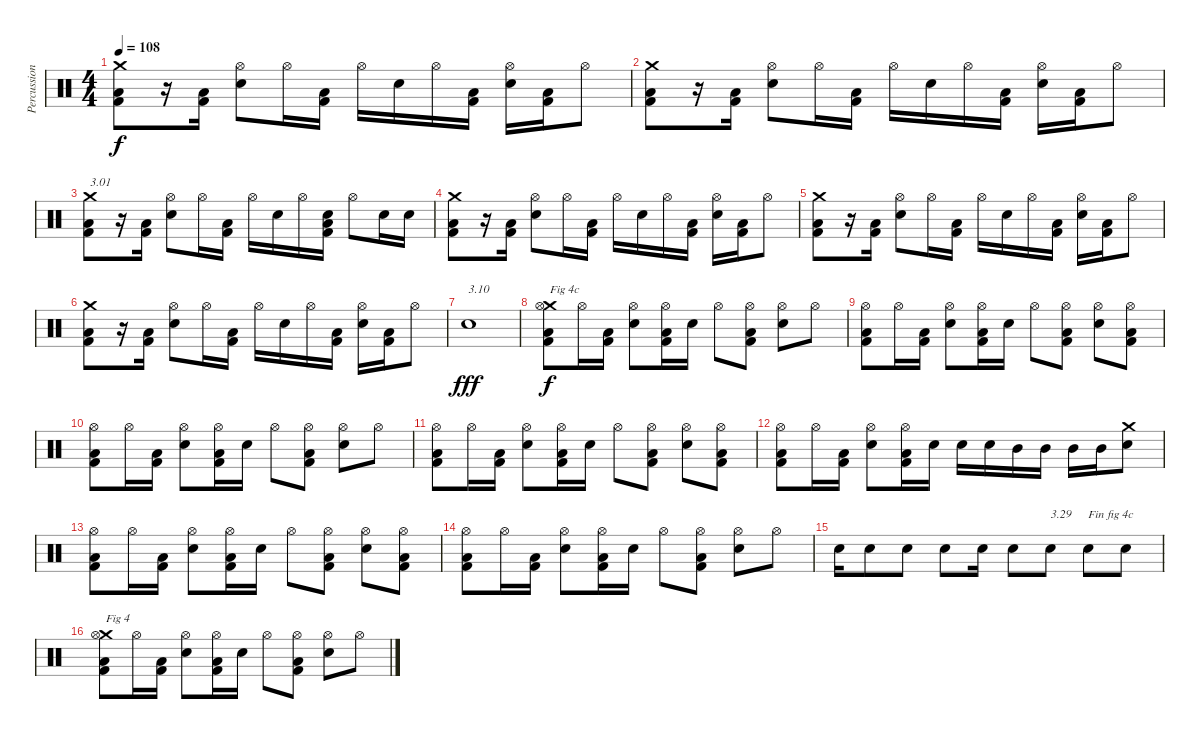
\track ("Percussions" "Percussion") {instrument percussion}
\staff {score}
\articulation defaults
\ts (4 4)
\tempo 108
\clef neutral
\ks c
("Kick (hit) 2" "Low Floor Tom (hit)" "Crash medium (hit)").8{dy f} r.16 ("Kick (hit) 2" "Low Floor Tom (hit)").16 ("Snare (hit) 2" "Hi-Hat (open)").8 "Hi-Hat (open)".16 ("Kick (hit) 2" "Low Floor Tom (hit)").16 "Hi-Hat (open)".16 "Snare (hit) 2".16 "Hi-Hat (open)".16 ("Kick (hit) 2" "Low Floor Tom (hit)").16 ("Snare (hit) 2" "Hi-Hat (open)").16 ("Kick (hit) 2" "Low Floor Tom (hit)").16 "Hi-Hat (open)".8 |
("Kick (hit) 2" "Low Floor Tom (hit)" "Crash medium (hit)").8 r.16 ("Kick (hit) 2" "Low Floor Tom (hit)").16 ("Snare (hit) 2" "Hi-Hat (open)").8 "Hi-Hat (open)".16 ("Kick (hit) 2" "Low Floor Tom (hit)").16 "Hi-Hat (open)".16 "Snare (hit) 2".16 "Hi-Hat (open)".16 ("Kick (hit) 2" "Low Floor Tom (hit)").16 ("Snare (hit) 2" "Hi-Hat (open)").16 ("Kick (hit) 2" "Low Floor Tom (hit)").16 "Hi-Hat (open)".8 |
("Kick (hit) 2" "Low Floor Tom (hit)" "Crash medium (hit)").8{txt "3.01"} r.16 ("Kick (hit) 2" "Low Floor Tom (hit)").16 ("Snare (hit) 2" "Hi-Hat (open)").8 "Hi-Hat (open)".16 ("Kick (hit) 2" "Low Floor Tom (hit)").16 "Hi-Hat (open)".16 "Snare (hit) 2".16 "Hi-Hat (open)".16 ("Kick (hit) 2" "Low Floor Tom (hit)" "Snare (hit) 2").16 "Hi-Hat (open)".8 "Snare (hit) 2".16 "Snare (hit) 2".16 |
("Kick (hit) 2" "Low Floor Tom (hit)" "Crash medium (hit)").8 r.16 ("Kick (hit) 2" "Low Floor Tom (hit)").16 ("Snare (hit) 2" "Hi-Hat (open)").8 "Hi-Hat (open)".16 ("Kick (hit) 2" "Low Floor Tom (hit)").16 "Hi-Hat (open)".16 "Snare (hit) 2".16 "Hi-Hat (open)".16 ("Kick (hit) 2" "Low Floor Tom (hit)").16 ("Snare (hit) 2" "Hi-Hat (open)").16 ("Kick (hit) 2" "Low Floor Tom (hit)").16 "Hi-Hat (open)".8 |
("Kick (hit) 2" "Low Floor Tom (hit)" "Crash medium (hit)").8 r.16 ("Kick (hit) 2" "Low Floor Tom (hit)").16 ("Snare (hit) 2" "Hi-Hat (open)").8 "Hi-Hat (open)".16 ("Kick (hit) 2" "Low Floor Tom (hit)").16 "Hi-Hat (open)".16 "Snare (hit) 2".16 "Hi-Hat (open)".16 ("Kick (hit) 2" "Low Floor Tom (hit)").16 ("Snare (hit) 2" "Hi-Hat (open)").16 ("Kick (hit) 2" "Low Floor Tom (hit)").16 "Hi-Hat (open)".8 |
("Kick (hit) 2" "Low Floor Tom (hit)" "Crash medium (hit)").8 r.16 ("Kick (hit) 2" "Low Floor Tom (hit)").16 ("Snare (hit) 2" "Hi-Hat (open)").8 "Hi-Hat (open)".16 ("Kick (hit) 2" "Low Floor Tom (hit)").16 "Hi-Hat (open)".16 "Snare (hit) 2".16 "Hi-Hat (open)".16 ("Kick (hit) 2" "Low Floor Tom (hit)").16 ("Snare (hit) 2" "Hi-Hat (open)").16 ("Kick (hit) 2" "Low Floor Tom (hit)").16 "Hi-Hat (open)".8 |
"Snare (hit) 2".1{txt "3.10" dy fff} |
("Kick (hit) 2" "Low Floor Tom (hit)" "Crash medium (hit)" "Hi-Hat (open)").8{txt "Fig 4c" dy f} "Hi-Hat (open)".16 ("Kick (hit) 2" "Low Floor Tom (hit)").16 ("Snare (hit) 2" "Hi-Hat (open)").8 ("Kick (hit) 2" "Low Floor Tom (hit)" "Hi-Hat (open)").16 "Snare (hit) 2".16 "Hi-Hat (open)".8 ("Kick (hit) 2" "Low Floor Tom (hit)" "Hi-Hat (open)").8 ("Snare (hit) 2" "Hi-Hat (open)").8 "Hi-Hat (open)".8 |
("Kick (hit) 2" "Low Floor Tom (hit)" "Hi-Hat (open)").8 "Hi-Hat (open)".16 ("Kick (hit) 2" "Low Floor Tom (hit)").16 ("Snare (hit) 2" "Hi-Hat (open)").8 ("Kick (hit) 2" "Low Floor Tom (hit)" "Hi-Hat (open)").16 "Snare (hit) 2".16 "Hi-Hat (open)".8 ("Kick (hit) 2" "Low Floor Tom (hit)" "Hi-Hat (open)").8 ("Snare (hit) 2" "Hi-Hat (open)").8 ("Kick (hit) 2" "Low Floor Tom (hit)" "Hi-Hat (open)").8 |
("Kick (hit) 2" "Low Floor Tom (hit)" "Hi-Hat (open)").8 "Hi-Hat (open)".16 ("Kick (hit) 2" "Low Floor Tom (hit)").16 ("Snare (hit) 2" "Hi-Hat (open)").8 ("Kick (hit) 2" "Low Floor Tom (hit)" "Hi-Hat (open)").16 "Snare (hit) 2".16 "Hi-Hat (open)".8 ("Kick (hit) 2" "Low Floor Tom (hit)" "Hi-Hat (open)").8 ("Snare (hit) 2" "Hi-Hat (open)").8 "Hi-Hat (open)".8 |
("Kick (hit) 2" "Low Floor Tom (hit)" "Hi-Hat (open)").8 "Hi-Hat (open)".16 ("Kick (hit) 2" "Low Floor Tom (hit)").16 ("Snare (hit) 2" "Hi-Hat (open)").8 ("Kick (hit) 2" "Low Floor Tom (hit)" "Hi-Hat (open)").16 "Snare (hit) 2".16 "Hi-Hat (open)".8 ("Kick (hit) 2" "Low Floor Tom (hit)" "Hi-Hat (open)").8 ("Snare (hit) 2" "Hi-Hat (open)").8 ("Kick (hit) 2" "Low Floor Tom (hit)" "Hi-Hat (open)").8 |
("Kick (hit) 2" "Low Floor Tom (hit)" "Hi-Hat (open)").8 "Hi-Hat (open)".16 ("Kick (hit) 2" "Low Floor Tom (hit)").16 ("Snare (hit) 2" "Hi-Hat (open)").8 ("Kick (hit) 2" "Low Floor Tom (hit)" "Hi-Hat (open)").16 "Snare (hit) 2".16 "Snare (hit) 2".16 "Snare (hit) 2".16 "Mid Tom (hit)".16 "Mid Tom (hit)".16 "Mid Tom (hit)".16 "Mid Tom (hit)".16 ("Snare (hit) 2" "Crash medium (hit)").8 |
("Kick (hit) 2" "Low Floor Tom (hit)" "Hi-Hat (open)").8 "Hi-Hat (open)".16 ("Kick (hit) 2" "Low Floor Tom (hit)").16 ("Snare (hit) 2" "Hi-Hat (open)").8 ("Kick (hit) 2" "Low Floor Tom (hit)" "Hi-Hat (open)").16 "Snare (hit) 2".16 "Hi-Hat (open)".8 ("Kick (hit) 2" "Low Floor Tom (hit)" "Hi-Hat (open)").8 ("Snare (hit) 2" "Hi-Hat (open)").8 ("Kick (hit) 2" "Low Floor Tom (hit)" "Hi-Hat (open)").8 |
("Kick (hit) 2" "Low Floor Tom (hit)" "Hi-Hat (open)").8 "Hi-Hat (open)".16 ("Kick (hit) 2" "Low Floor Tom (hit)").16 ("Snare (hit) 2" "Hi-Hat (open)").8 ("Kick (hit) 2" "Low Floor Tom (hit)" "Hi-Hat (open)").16 "Snare (hit) 2".16 "Hi-Hat (open)".8 ("Kick (hit) 2" "Low Floor Tom (hit)" "Hi-Hat (open)").8 ("Snare (hit) 2" "Hi-Hat (open)").8 "Hi-Hat (open)".8 |
"Snare (hit) 2".16 "Snare (hit) 2".8 "Snare (hit) 2".8 "Snare (hit) 2".8 "Snare (hit) 2".16 "Snare (hit) 2".8 "Snare (hit) 2".8{txt "3.29"} "Snare (hit) 2".8{txt "Fin fig 4c"} "Snare (hit) 2".8 |
("Kick (hit) 2" "Low Floor Tom (hit)" "Crash medium (hit)" "Hi-Hat (open)").8{txt "Fig 4"} "Hi-Hat (open)".16 ("Kick (hit) 2" "Low Floor Tom (hit)").16 ("Snare (hit) 2" "Hi-Hat (open)").8 ("Kick (hit) 2" "Low Floor Tom (hit)" "Hi-Hat (open)").16 "Snare (hit) 2".16 "Hi-Hat (open)".8 ("Kick (hit) 2" "Low Floor Tom (hit)" "Hi-Hat (open)").8 ("Snare (hit) 2" "Hi-Hat (open)").8 "Hi-Hat (open)".8
